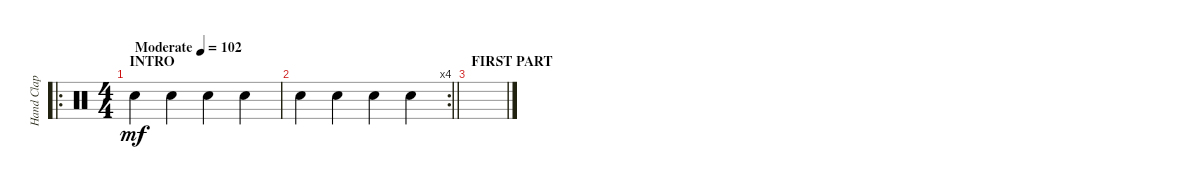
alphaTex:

\track ("Hand Clap" "Hand Clap") {instrument percussion}
\staff {score}
\articulation defaults
\ro
\ts (4 4)
\section ("" "INTRO")
\tempo (102 "Moderate")
\clef neutral
\ks c "Hand Clap (hit)".4{dy mf} "Hand Clap (hit)".4 "Hand Clap (hit)".4 "Hand Clap (hit)".4
|
\rc 4
\barLineRight lightlight "Hand Clap (hit)".4 "Hand Clap (hit)".4 "Hand Clap (hit)".4 "Hand Clap (hit)".4
|
\section ("" "FIRST PART")
